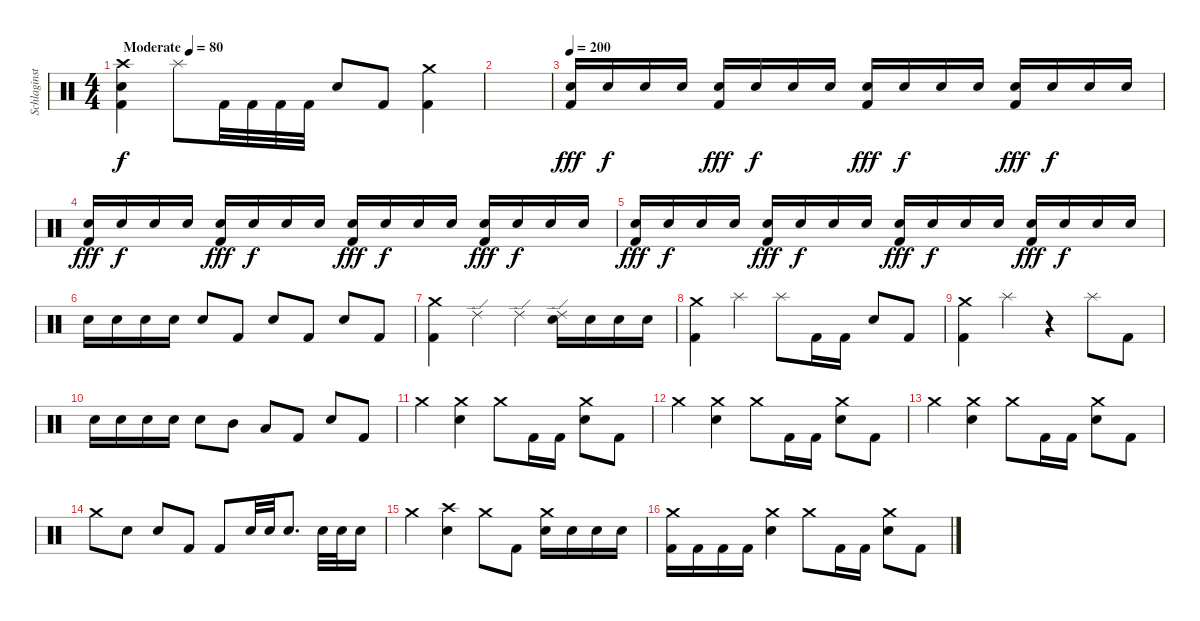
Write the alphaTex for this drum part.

\track ("Schlaginstrumente - Auswahl" "Schlaginst") {instrument percussion}
\staff {score}
\articulation defaults
\ts (4 4)
\tempo (80 "Moderate")
\clef neutral
\ks c
("Crash high (hit)" "Electric Snare (hit)" "Kick (hit) 2").4{dy f} "Splash (hit)".8 "Kick (hit) 2".32 "Kick (hit) 2".32 "Kick (hit) 2".32 "Kick (hit) 2".32 "Electric Snare (hit)".8 "Kick (hit) 2".8 ("Crash medium (hit)" "Kick (hit) 2").4 |
|
\tempo 200
("Electric Snare (hit)" "Kick (hit) 2").16{dy fff} "Electric Snare (hit)".16{dy f} "Electric Snare (hit)".16 "Electric Snare (hit)".16 ("Electric Snare (hit)" "Kick (hit) 2").16{dy fff} "Electric Snare (hit)".16{dy f} "Electric Snare (hit)".16 "Electric Snare (hit)".16 ("Electric Snare (hit)" "Kick (hit) 2").16{dy fff} "Electric Snare (hit)".16{dy f} "Electric Snare (hit)".16 "Electric Snare (hit)".16 ("Electric Snare (hit)" "Kick (hit) 2").16{dy fff} "Electric Snare (hit)".16{dy f} "Electric Snare (hit)".16 "Electric Snare (hit)".16 |
("Electric Snare (hit)" "Kick (hit) 2").16{dy fff} "Electric Snare (hit)".16{dy f} "Electric Snare (hit)".16 "Electric Snare (hit)".16 ("Electric Snare (hit)" "Kick (hit) 2").16{dy fff} "Electric Snare (hit)".16{dy f} "Electric Snare (hit)".16 "Electric Snare (hit)".16 ("Electric Snare (hit)" "Kick (hit) 2").16{dy fff} "Electric Snare (hit)".16{dy f} "Electric Snare (hit)".16 "Electric Snare (hit)".16 ("Electric Snare (hit)" "Kick (hit) 2").16{dy fff} "Electric Snare (hit)".16{dy f} "Electric Snare (hit)".16 "Electric Snare (hit)".16 |
("Electric Snare (hit)" "Kick (hit) 2").16{dy fff} "Electric Snare (hit)".16{dy f} "Electric Snare (hit)".16 "Electric Snare (hit)".16 ("Electric Snare (hit)" "Kick (hit) 2").16{dy fff} "Electric Snare (hit)".16{dy f} "Electric Snare (hit)".16 "Electric Snare (hit)".16 ("Electric Snare (hit)" "Kick (hit) 2").16{dy fff} "Electric Snare (hit)".16{dy f} "Electric Snare (hit)".16 "Electric Snare (hit)".16 ("Electric Snare (hit)" "Kick (hit) 2").16{dy fff} "Electric Snare (hit)".16{dy f} "Electric Snare (hit)".16 "Electric Snare (hit)".16 |
"Electric Snare (hit)".16 "Electric Snare (hit)".16 "Electric Snare (hit)".16 "Electric Snare (hit)".16 "Electric Snare (hit)".8 "Kick (hit) 2".8 "Electric Snare (hit)".8 "Kick (hit) 2".8 "Electric Snare (hit)".8 "Kick (hit) 2".8 |
("Crash medium (hit)" "Kick (hit) 2").4 "Ride (edge) 2".4 "Ride (edge) 2".4 ("Ride (edge) 2" "Electric Snare (hit)").16 "Electric Snare (hit)".16 "Electric Snare (hit)".16 "Electric Snare (hit)".16 |
("Crash medium (hit)" "Kick (hit) 2").4 "Splash (hit)".4 "Splash (hit)".8 "Kick (hit) 2".16 "Kick (hit) 2".16 "Electric Snare (hit)".8 "Kick (hit) 2".8 |
("Crash medium (hit)" "Kick (hit) 2").4 "Splash (hit)".4 r.4 "Splash (hit)".8 "Kick (hit) 2".8 |
"Electric Snare (hit)".16 "Electric Snare (hit)".16 "Electric Snare (hit)".16 "Electric Snare (hit)".16 "Electric Snare (hit)".8 "Mid Tom (hit)".8 "Low Tom (hit)".8 "Kick (hit) 2".8 "Electric Snare (hit)".8 "Kick (hit) 2".8 |
"Crash medium (hit)".4 ("Crash medium (hit)" "Electric Snare (hit)").4 "Crash medium (hit)".8 "Kick (hit) 2".16 "Kick (hit) 2".16 ("Crash medium (hit)" "Electric Snare (hit)").8 "Kick (hit) 2".8 |
"Crash medium (hit)".4 ("Crash medium (hit)" "Electric Snare (hit)").4 "Crash medium (hit)".8 "Kick (hit) 2".16 "Kick (hit) 2".16 ("Crash medium (hit)" "Electric Snare (hit)").8 "Kick (hit) 2".8 |
"Crash medium (hit)".4 ("Crash medium (hit)" "Electric Snare (hit)").4 "Crash medium (hit)".8 "Kick (hit) 2".16 "Kick (hit) 2".16 ("Crash medium (hit)" "Electric Snare (hit)").8 "Kick (hit) 2".8 |
"Crash medium (hit)".8 "Electric Snare (hit)".8 "Electric Snare (hit)".8 "Kick (hit) 2".8 "Kick (hit) 2".8 "Electric Snare (hit)".32 "Electric Snare (hit)".32 "Electric Snare (hit)".8{d} "Electric Snare (hit)".32 "Electric Snare (hit)".32 "Electric Snare (hit)".16 |
"Crash medium (hit)".4 ("Crash high (hit)" "Electric Snare (hit)").4 "Crash medium (hit)".8 "Kick (hit) 2".8 ("Crash medium (hit)" "Electric Snare (hit)").16 "Electric Snare (hit)".16 "Electric Snare (hit)".16 "Electric Snare (hit)".16 |
("Crash medium (hit)" "Kick (hit) 2").16 "Kick (hit) 2".16 "Kick (hit) 2".16 "Kick (hit) 2".16 ("Crash medium (hit)" "Electric Snare (hit)").4 "Crash medium (hit)".8 "Kick (hit) 2".16 "Kick (hit) 2".16 ("Crash medium (hit)" "Electric Snare (hit)").8 "Kick (hit) 2".8
